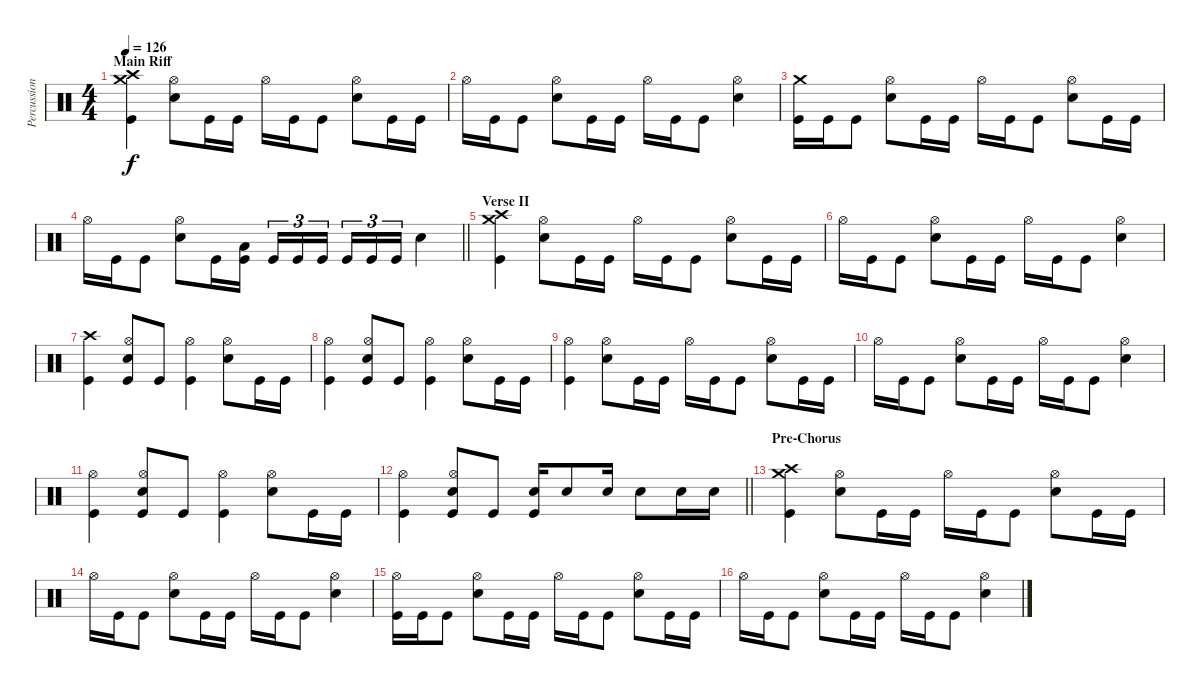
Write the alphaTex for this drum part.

\track ("Percussion" "Percussion") {instrument percussion}
\staff {score}
\articulation defaults
\ts (4 4)
\section ("" "Main Riff")
\tempo 126
\clef neutral
\ks c
("Crash high (hit)" "Crash medium (hit)" "Kick (hit)").4{dy f} ("Hi-Hat (open)" "Electric Snare (hit)").8 "Kick (hit)".16 "Kick (hit)".16 "Hi-Hat (open)".16 "Kick (hit)".16 "Kick (hit)".8 ("Hi-Hat (open)" "Electric Snare (hit)").8 "Kick (hit)".16 "Kick (hit)".16 |
"Hi-Hat (open)".16 "Kick (hit)".16 "Kick (hit)".8 ("Hi-Hat (open)" "Electric Snare (hit)").8 "Kick (hit)".16 "Kick (hit)".16 "Hi-Hat (open)".16 "Kick (hit)".16 "Kick (hit)".8 ("Hi-Hat (open)" "Electric Snare (hit)").4 |
("Crash medium (hit)" "Kick (hit)").16 "Kick (hit)".16 "Kick (hit)".8 ("Hi-Hat (open)" "Electric Snare (hit)").8 "Kick (hit)".16 "Kick (hit)".16 "Hi-Hat (open)".16 "Kick (hit)".16 "Kick (hit)".8 ("Hi-Hat (open)" "Electric Snare (hit)").8 "Kick (hit)".16 "Kick (hit)".16 |
\barLineRight lightlight "Hi-Hat (open)".16 "Kick (hit)".16 "Kick (hit)".8
("Hi-Hat (open)" "Electric Snare (hit)").8 "Kick (hit)".16 ("Low Floor Tom (hit)" "Kick (hit)").16 "Kick (hit)".16{tu (3 2)} "Kick (hit)".16{tu (3 2)} "Kick (hit)".16{tu (3 2) beam splitsecondary} "Kick (hit)".16{tu (3 2)} "Kick (hit)".16{tu (3 2)} "Kick (hit)".16{tu (3 2)} "Electric Snare (hit)".4 |
\section ("" "Verse II")
("Crash high (hit)" "Crash medium (hit)" "Kick (hit)").4 ("Hi-Hat (open)" "Electric Snare (hit)").8 "Kick (hit)".16 "Kick (hit)".16 "Hi-Hat (open)".16 "Kick (hit)".16 "Kick (hit)".8 ("Hi-Hat (open)" "Electric Snare (hit)").8 "Kick (hit)".16 "Kick (hit)".16 |
"Hi-Hat (open)".16 "Kick (hit)".16 "Kick (hit)".8 ("Hi-Hat (open)" "Electric Snare (hit)").8 "Kick (hit)".16 "Kick (hit)".16 "Hi-Hat (open)".16 "Kick (hit)".16 "Kick (hit)".8 ("Hi-Hat (open)" "Electric Snare (hit)").4 |
("Crash high (hit)" "Kick (hit)").4 ("Hi-Hat (open)" "Electric Snare (hit)" "Kick (hit)").8 "Kick (hit)".8 ("Hi-Hat (open)" "Kick (hit)").4 ("Hi-Hat (open)" "Electric Snare (hit)").8 "Kick (hit)".16 "Kick (hit)".16 |
("Hi-Hat (open)" "Kick (hit)").4 ("Hi-Hat (open)" "Electric Snare (hit)" "Kick (hit)").8 "Kick (hit)".8 ("Hi-Hat (open)" "Kick (hit)").4 ("Hi-Hat (open)" "Electric Snare (hit)").8 "Kick (hit)".16 "Kick (hit)".16 |
("Hi-Hat (open)" "Kick (hit)").4 ("Hi-Hat (open)" "Electric Snare (hit)").8 "Kick (hit)".16 "Kick (hit)".16 "Hi-Hat (open)".16 "Kick (hit)".16 "Kick (hit)".8 ("Hi-Hat (open)" "Electric Snare (hit)").8 "Kick (hit)".16 "Kick (hit)".16 |
"Hi-Hat (open)".16 "Kick (hit)".16 "Kick (hit)".8 ("Hi-Hat (open)" "Electric Snare (hit)").8 "Kick (hit)".16 "Kick (hit)".16 "Hi-Hat (open)".16 "Kick (hit)".16 "Kick (hit)".8 ("Hi-Hat (open)" "Electric Snare (hit)").4 |
("Hi-Hat (open)" "Kick (hit)").4 ("Hi-Hat (open)" "Electric Snare (hit)" "Kick (hit)").8 "Kick (hit)".8 ("Hi-Hat (open)" "Kick (hit)").4 ("Hi-Hat (open)" "Electric Snare (hit)").8 "Kick (hit)".16 "Kick (hit)".16 |
\barLineRight lightlight
("Hi-Hat (open)" "Kick (hit)").4 ("Hi-Hat (open)" "Electric Snare (hit)" "Kick (hit)").8 "Kick (hit)".8 ("Electric Snare (hit)" "Kick (hit)").16 "Electric Snare (hit)".8 "Electric Snare (hit)".16 "Electric Snare (hit)".8 "Electric Snare (hit)".16 "Electric Snare (hit)".16 |
\section ("" "Pre-Chorus")
("Crash high (hit)" "Crash medium (hit)" "Kick (hit)").4 ("Hi-Hat (open)" "Electric Snare (hit)").8 "Kick (hit)".16 "Kick (hit)".16 "Hi-Hat (open)".16 "Kick (hit)".16 "Kick (hit)".8 ("Hi-Hat (open)" "Electric Snare (hit)").8 "Kick (hit)".16 "Kick (hit)".16 |
"Hi-Hat (open)".16 "Kick (hit)".16 "Kick (hit)".8 ("Hi-Hat (open)" "Electric Snare (hit)").8 "Kick (hit)".16 "Kick (hit)".16 "Hi-Hat (open)".16 "Kick (hit)".16 "Kick (hit)".8 ("Hi-Hat (open)" "Electric Snare (hit)").4 |
("Hi-Hat (open)" "Kick (hit)").16 "Kick (hit)".16 "Kick (hit)".8 ("Hi-Hat (open)" "Electric Snare (hit)").8 "Kick (hit)".16 "Kick (hit)".16 "Hi-Hat (open)".16 "Kick (hit)".16 "Kick (hit)".8 ("Hi-Hat (open)" "Electric Snare (hit)").8 "Kick (hit)".16 "Kick (hit)".16 |
"Hi-Hat (open)".16 "Kick (hit)".16 "Kick (hit)".8 ("Hi-Hat (open)" "Electric Snare (hit)").8 "Kick (hit)".16 "Kick (hit)".16 "Hi-Hat (open)".16 "Kick (hit)".16 "Kick (hit)".8 ("Hi-Hat (open)" "Electric Snare (hit)").4
